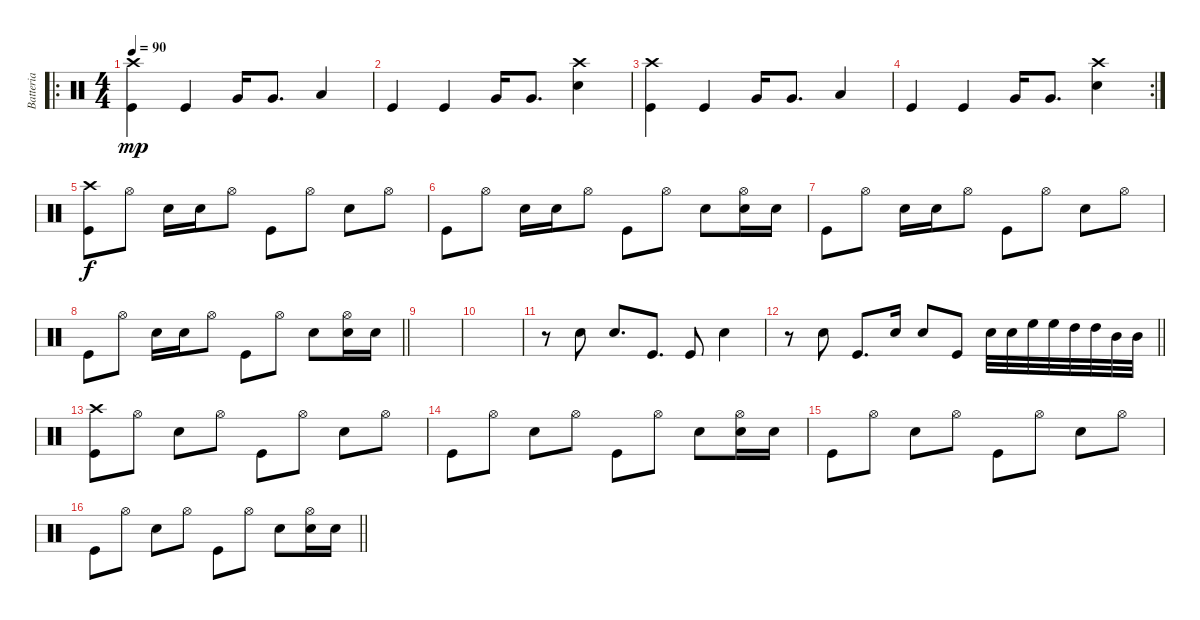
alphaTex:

\track ("Batteria" "Batteria") {instrument percussion}
\staff {score}
\articulation defaults
\ro
\ts (4 4)
\tempo 90
\clef neutral
\ks c
("Kick (hit)" "Crash high (hit)").4{dy mp} "Kick (hit)".4 "Very Low Tom (hit)".16 "Very Low Tom (hit)".8{d} "Low Tom (hit)".4 |
"Kick (hit)".4 "Kick (hit)".4 "Very Low Tom (hit)".16 "Very Low Tom (hit)".8{d} ("Snare (hit) 2" "Crash high (hit)").4 |
("Kick (hit)" "Crash high (hit)").4 "Kick (hit)".4 "Very Low Tom (hit)".16 "Very Low Tom (hit)".8{d} "Low Tom (hit)".4 |
\rc 2 "Kick (hit)".4 "Kick (hit)".4 "Very Low Tom (hit)".16 "Very Low Tom (hit)".8{d}
("Snare (hit) 2" "Crash high (hit)").4 |
("Kick (hit)" "Crash high (hit)").8{dy f} "Hi-Hat (open)".8 "Snare (hit) 2".16 "Snare (hit) 2".16 "Hi-Hat (open)".8 "Kick (hit)".8 "Hi-Hat (open)".8 "Snare (hit) 2".8 "Hi-Hat (open)".8 |
"Kick (hit)".8 "Hi-Hat (open)".8 "Snare (hit) 2".16 "Snare (hit) 2".16 "Hi-Hat (open)".8 "Kick (hit)".8 "Hi-Hat (open)".8 "Snare (hit) 2".8 ("Hi-Hat (open)" "Snare (hit) 2").16 "Snare (hit) 2".16 |
"Kick (hit)".8 "Hi-Hat (open)".8 "Snare (hit) 2".16 "Snare (hit) 2".16 "Hi-Hat (open)".8 "Kick (hit)".8 "Hi-Hat (open)".8 "Snare (hit) 2".8 "Hi-Hat (open)".8 |
\barLineRight lightlight "Kick (hit)".8 "Hi-Hat (open)".8 "Snare (hit) 2".16 "Snare (hit) 2".16 "Hi-Hat (open)".8 "Kick (hit)".8 "Hi-Hat (open)".8 "Snare (hit) 2".8
("Hi-Hat (open)" "Snare (hit) 2").16 "Snare (hit) 2".16 |
|
|
r.8 "Snare (hit) 2".8 "Snare (hit) 2".8{d} "Kick (hit)".8{d} "Kick (hit)".8 "Snare (hit) 2".4 |
\barLineRight lightlight
r.8 "Snare (hit) 2".8 "Kick (hit)".8{d} "Snare (hit) 2".16 "Snare (hit) 2".8 "Kick (hit)".8 "Snare (hit) 2".32 "Snare (hit) 2".32 "High Floor Tom (hit)".32 "High Floor Tom (hit)".32 "High Tom (hit)".32 "High Tom (hit)".32 "Mid Tom (hit)".32 "Mid Tom (hit)".32 |
("Kick (hit)" "Crash high (hit)").8 "Hi-Hat (open)".8 "Snare (hit) 2".8 "Hi-Hat (open)".8 "Kick (hit)".8 "Hi-Hat (open)".8 "Snare (hit) 2".8 "Hi-Hat (open)".8 |
"Kick (hit)".8 "Hi-Hat (open)".8 "Snare (hit) 2".8 "Hi-Hat (open)".8 "Kick (hit)".8 "Hi-Hat (open)".8 "Snare (hit) 2".8 ("Hi-Hat (open)" "Snare (hit) 2").16 "Snare (hit) 2".16 |
"Kick (hit)".8 "Hi-Hat (open)".8 "Snare (hit) 2".8 "Hi-Hat (open)".8 "Kick (hit)".8 "Hi-Hat (open)".8 "Snare (hit) 2".8 "Hi-Hat (open)".8 |
\barLineRight lightlight "Kick (hit)".8 "Hi-Hat (open)".8 "Snare (hit) 2".8 "Hi-Hat (open)".8 "Kick (hit)".8 "Hi-Hat (open)".8 "Snare (hit) 2".8
("Hi-Hat (open)" "Snare (hit) 2").16 "Snare (hit) 2".16
